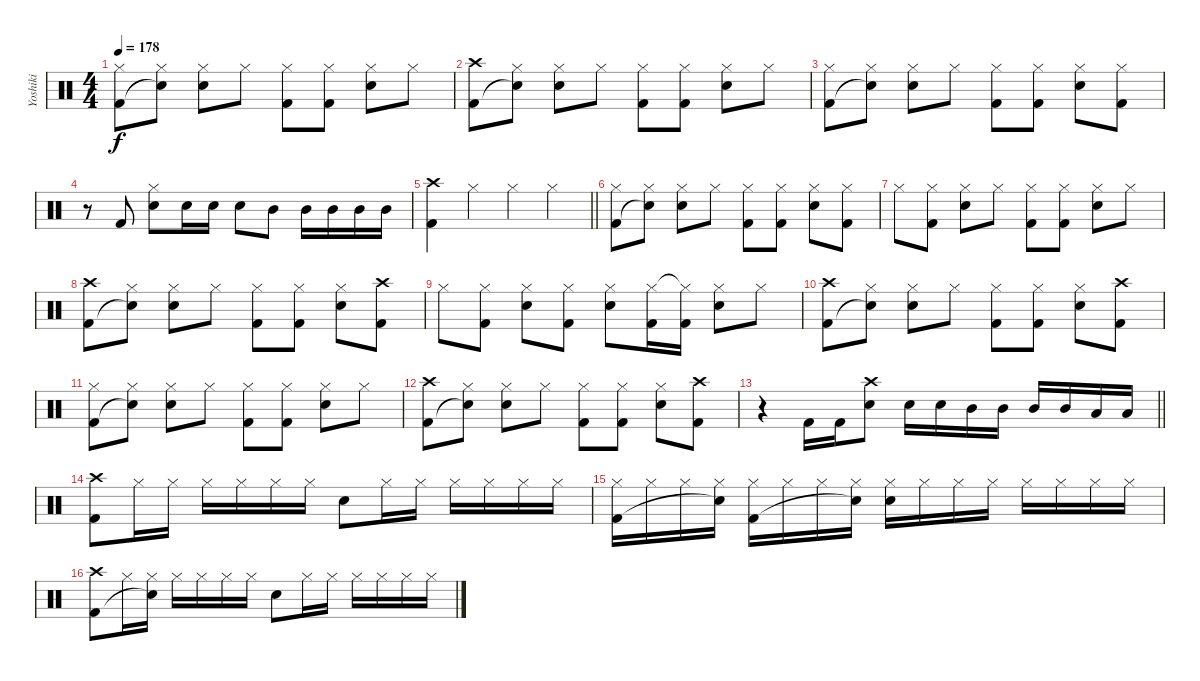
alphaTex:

\track ("Yoshiki" "Yoshiki") {instrument percussion}
\staff {score}
\articulation defaults
\ts (4 4)
\tempo 178
\clef neutral
\ks c
("Hi-Hat (closed)" "Kick (hit) 2").8{dy f} ("Hi-Hat (closed)" "Snare (hit)"{t}).8 ("Hi-Hat (closed)" "Snare (hit) 2").8 "Hi-Hat (closed)".8 ("Hi-Hat (closed)" "Kick (hit) 2").8 ("Hi-Hat (closed)" "Kick (hit) 2").8 ("Hi-Hat (closed)" "Snare (hit) 2").8 "Hi-Hat (closed)".8 |
("Crash high (hit)" "Kick (hit) 2").8 ("Hi-Hat (closed)" "Snare (hit)"{t}).8 ("Hi-Hat (closed)" "Snare (hit) 2").8 "Hi-Hat (closed)".8 ("Hi-Hat (closed)" "Kick (hit) 2").8 ("Hi-Hat (closed)" "Kick (hit) 2").8 ("Hi-Hat (closed)" "Snare (hit) 2").8 "Hi-Hat (closed)".8 |
("Hi-Hat (closed)" "Kick (hit) 2").8 ("Hi-Hat (closed)" "Snare (hit)"{t}).8 ("Hi-Hat (closed)" "Snare (hit) 2").8 "Hi-Hat (closed)".8 ("Hi-Hat (closed)" "Kick (hit) 2").8 ("Hi-Hat (closed)" "Kick (hit) 2").8 ("Hi-Hat (closed)" "Snare (hit) 2").8 ("Hi-Hat (closed)" "Kick (hit) 2").8 |
r.8 "Kick (hit) 2".8 ("Hi-Hat (closed)" "Snare (hit) 2").8 "Snare (hit) 2".16 "Snare (hit) 2".16 "Snare (hit) 2".8 "Mid Tom (hit)".8 "Mid Tom (hit)".16 "Mid Tom (hit)".16 "Mid Tom (hit)".16 "Mid Tom (hit)".16 |
\barLineRight lightlight
("Crash high (hit)" "Kick (hit) 2").4 "Hi-Hat (closed)".4 "Hi-Hat (closed)".4 "Hi-Hat (closed)".4 |
\section ("" "")
("Hi-Hat (closed)" "Kick (hit) 2").8 ("Hi-Hat (closed)" "Snare (hit)"{t}).8 ("Hi-Hat (closed)" "Snare (hit) 2").8 "Hi-Hat (closed)".8 ("Hi-Hat (closed)" "Kick (hit) 2").8 ("Hi-Hat (closed)" "Kick (hit) 2").8 ("Hi-Hat (closed)" "Snare (hit) 2").8 ("Hi-Hat (closed)" "Kick (hit) 2").8 |
"Hi-Hat (closed)".8 ("Hi-Hat (closed)" "Kick (hit) 2").8 ("Hi-Hat (closed)" "Snare (hit) 2").8 "Hi-Hat (closed)".8 ("Hi-Hat (closed)" "Kick (hit) 2").8 ("Hi-Hat (closed)" "Kick (hit) 2").8 ("Hi-Hat (closed)" "Snare (hit) 2").8 "Hi-Hat (closed)".8 |
("Crash high (hit)" "Kick (hit) 2").8 ("Hi-Hat (closed)" "Snare (hit)"{t}).8 ("Hi-Hat (closed)" "Snare (hit) 2").8 "Hi-Hat (closed)".8 ("Hi-Hat (closed)" "Kick (hit) 2").8 ("Hi-Hat (closed)" "Kick (hit) 2").8 ("Hi-Hat (closed)" "Snare (hit) 2").8 ("Crash high (hit)" "Kick (hit) 2").8 |
"Hi-Hat (closed)".8 ("Hi-Hat (closed)" "Kick (hit) 2").8 ("Hi-Hat (closed)" "Snare (hit) 2").8 ("Hi-Hat (closed)" "Kick (hit) 2").8 ("Hi-Hat (closed)" "Snare (hit) 2").8 ("Hi-Hat (closed)" "Kick (hit) 2").16 ("Hi-Hat (closed)"{t} "Kick (hit) 2").16 ("Hi-Hat (closed)" "Snare (hit) 2").8 "Hi-Hat (closed)".8 |
("Crash high (hit)" "Kick (hit) 2").8 ("Hi-Hat (closed)" "Snare (hit)"{t}).8 ("Hi-Hat (closed)" "Snare (hit) 2").8 "Hi-Hat (closed)".8 ("Hi-Hat (closed)" "Kick (hit) 2").8 ("Hi-Hat (closed)" "Kick (hit) 2").8 ("Hi-Hat (closed)" "Snare (hit) 2").8 ("Crash high (hit)" "Kick (hit) 2").8 |
("Hi-Hat (closed)" "Kick (hit) 2").8 ("Hi-Hat (closed)" "Snare (hit)"{t}).8 ("Hi-Hat (closed)" "Snare (hit) 2").8 "Hi-Hat (closed)".8 ("Hi-Hat (closed)" "Kick (hit) 2").8 ("Hi-Hat (closed)" "Kick (hit) 2").8 ("Hi-Hat (closed)" "Snare (hit) 2").8 "Hi-Hat (closed)".8 |
("Crash high (hit)" "Kick (hit) 2").8 ("Hi-Hat (closed)" "Snare (hit)"{t}).8 ("Hi-Hat (closed)" "Snare (hit) 2").8 "Hi-Hat (closed)".8 ("Hi-Hat (closed)" "Kick (hit) 2").8 ("Hi-Hat (closed)" "Kick (hit) 2").8 ("Hi-Hat (closed)" "Snare (hit) 2").8 ("Crash high (hit)" "Kick (hit) 2").8 |
\barLineRight lightlight
r.4 "Kick (hit) 2".16 "Kick (hit) 2".16 ("Crash high (hit)" "Snare (hit) 2").8 "Snare (hit) 2".16 "Snare (hit) 2".16 "Mid Tom (hit)".16 "Mid Tom (hit)".16 "Mid Tom (hit)".16 "Mid Tom (hit)".16 "Low Tom (hit)".16 "Low Tom (hit)".16 |
\section ("" "")
("Crash high (hit)" "Kick (hit) 2").8 "Hi-Hat (closed)".16 "Hi-Hat (closed)".16 "Hi-Hat (closed)".16 "Hi-Hat (closed)".16 "Hi-Hat (closed)".16 "Hi-Hat (closed)".16 "Snare (hit) 2".8 "Hi-Hat (closed)".16 "Hi-Hat (closed)".16 "Hi-Hat (closed)".16 "Hi-Hat (closed)".16 "Hi-Hat (closed)".16 "Hi-Hat (closed)".16 |
("Hi-Hat (closed)" "Kick (hit) 2").16 "Hi-Hat (closed)".16 "Hi-Hat (closed)".16 ("Hi-Hat (closed)" "Snare (hit)"{t}).16 ("Hi-Hat (closed)" "Kick (hit) 2").16 "Hi-Hat (closed)".16 "Hi-Hat (closed)".16 ("Hi-Hat (closed)" "Snare (hit)"{t}).16 ("Hi-Hat (closed)" "Snare (hit) 2").16 "Hi-Hat (closed)".16 "Hi-Hat (closed)".16 "Hi-Hat (closed)".16 "Hi-Hat (closed)".16 "Hi-Hat (closed)".16 "Hi-Hat (closed)".16 "Hi-Hat (closed)".16 |
("Crash high (hit)" "Kick (hit) 2").8 "Hi-Hat (closed)".16 ("Hi-Hat (closed)" "Snare (hit)"{t}).16 "Hi-Hat (closed)".16 "Hi-Hat (closed)".16 "Hi-Hat (closed)".16 "Hi-Hat (closed)".16 "Snare (hit) 2".8 "Hi-Hat (closed)".16 "Hi-Hat (closed)".16 "Hi-Hat (closed)".16 "Hi-Hat (closed)".16 "Hi-Hat (closed)".16 "Hi-Hat (closed)".16
